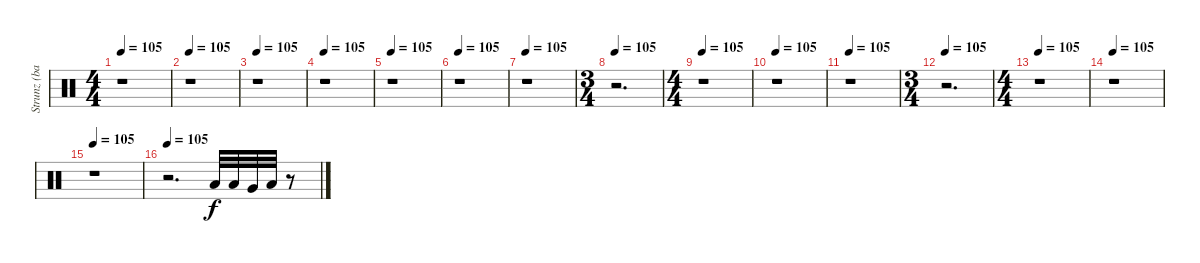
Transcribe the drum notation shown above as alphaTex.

\track ("Strunz (bateria)" "Strunz (ba") {instrument percussion}
\staff {score}
\articulation defaults
\ts (4 4)
\tempo 105
\clef neutral
\ks c
r.1{dy f} |
\tempo 105
r.1 |
\tempo 105
r.1 |
\tempo 105
r.1 |
\tempo 105
r.1 |
\tempo 105
r.1 |
\tempo 105
r.1 |
\ts (3 4)
\tempo 105
r.2{d} |
\ts (4 4)
\tempo 105
r.1 |
\tempo 105
r.1 |
\tempo 105
r.1 |
\ts (3 4)
\tempo 105
r.2{d} |
\ts (4 4)
\tempo 105
r.1 |
\tempo 105
r.1 |
\tempo 105
r.1 |
\tempo 105
r.2{d} "Low Tom (hit)".32 "Low Tom (hit)".32 "Very Low Tom (hit)".32 "Low Floor Tom (hit)".32 r.8
